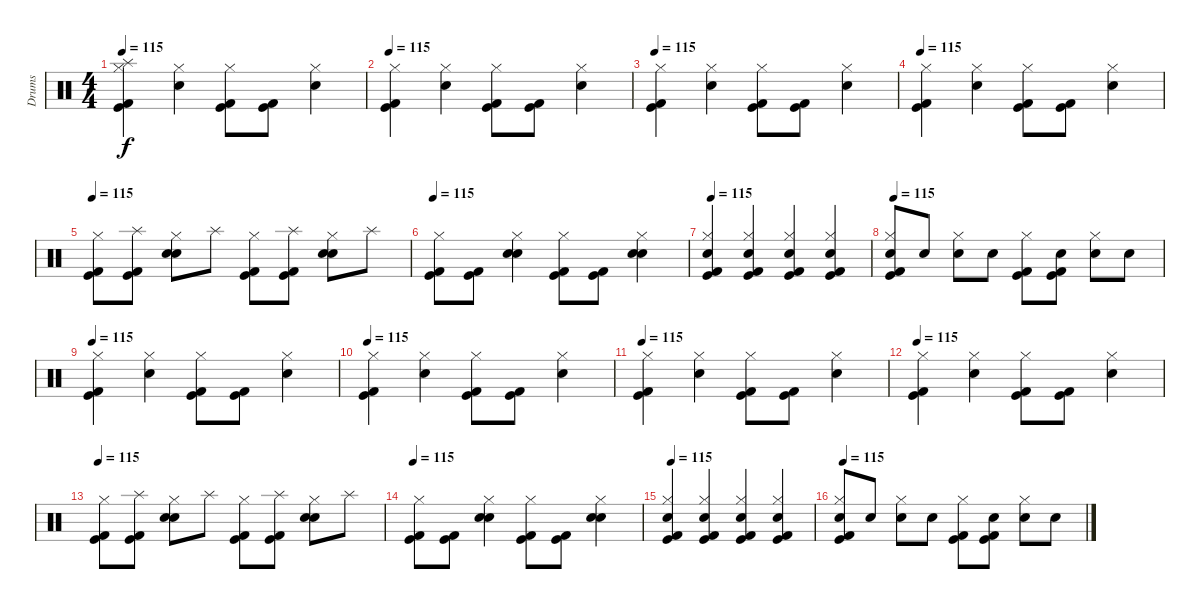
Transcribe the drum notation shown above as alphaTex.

\track ("Drums" "Drums") {instrument percussion}
\staff {score}
\articulation defaults
\ts (4 4)
\tempo 115
\clef neutral
\ks c
("Splash (hit)" "Kick (hit) 2" "Kick (hit)" "Hi-Hat (closed)").4{dy f} ("Hi-Hat (closed)" "Electric Snare (hit)").4 ("Kick (hit) 2" "Kick (hit)" "Hi-Hat (closed)").8 ("Kick (hit) 2" "Kick (hit)").8 ("Electric Snare (hit)" "Hi-Hat (closed)").4 |
\tempo 115
("Kick (hit) 2" "Kick (hit)" "Hi-Hat (closed)").4 ("Hi-Hat (closed)" "Electric Snare (hit)").4 ("Kick (hit) 2" "Kick (hit)" "Hi-Hat (closed)").8 ("Kick (hit) 2" "Kick (hit)").8 ("Electric Snare (hit)" "Hi-Hat (closed)").4 |
\tempo 115
("Kick (hit) 2" "Kick (hit)" "Hi-Hat (closed)").4 ("Hi-Hat (closed)" "Electric Snare (hit)").4 ("Kick (hit) 2" "Kick (hit)" "Hi-Hat (closed)").8 ("Kick (hit) 2" "Kick (hit)").8 ("Electric Snare (hit)" "Hi-Hat (closed)").4 |
\tempo 115
("Kick (hit) 2" "Kick (hit)" "Hi-Hat (closed)").4 ("Hi-Hat (closed)" "Electric Snare (hit)").4 ("Kick (hit) 2" "Kick (hit)" "Hi-Hat (closed)").8 ("Kick (hit) 2" "Kick (hit)").8 ("Electric Snare (hit)" "Hi-Hat (closed)").4 |
\tempo 115
("Kick (hit) 2" "Kick (hit)" "Hi-Hat (closed)").8 ("Splash (hit)" "Kick (hit) 2" "Kick (hit)").8 ("Snare (hit) 2" "Hi-Hat (closed)" "Electric Snare (hit)").8 "Splash (hit)".8 ("Kick (hit) 2" "Kick (hit)" "Hi-Hat (closed)").8 ("Splash (hit)" "Kick (hit) 2" "Kick (hit)").8 ("Snare (hit) 2" "Electric Snare (hit)" "Hi-Hat (closed)").8 "Splash (hit)".8 |
\tempo 115
("Kick (hit) 2" "Kick (hit)" "Hi-Hat (closed)").8 ("Kick (hit) 2" "Kick (hit)").8 ("Snare (hit) 2" "Hi-Hat (closed)" "Electric Snare (hit)").4 ("Kick (hit) 2" "Kick (hit)" "Hi-Hat (closed)").8 ("Kick (hit) 2" "Kick (hit)").8 ("Snare (hit) 2" "Electric Snare (hit)" "Hi-Hat (closed)").4 |
\tempo 115
("Electric Snare (hit)" "Kick (hit) 2" "Kick (hit)" "Hi-Hat (closed)").4 ("Kick (hit) 2" "Kick (hit)" "Hi-Hat (closed)" "Electric Snare (hit)").4 ("Electric Snare (hit)" "Kick (hit) 2" "Kick (hit)" "Hi-Hat (closed)").4 ("Kick (hit) 2" "Kick (hit)" "Electric Snare (hit)" "Hi-Hat (closed)").4 |
\tempo 115
("Electric Snare (hit)" "Kick (hit) 2" "Kick (hit)" "Hi-Hat (closed)").8 "Snare (hit) 2".8 ("Hi-Hat (closed)" "Electric Snare (hit)").8 "Electric Snare (hit)".8 ("Kick (hit) 2" "Kick (hit)" "Hi-Hat (closed)").8 ("Electric Snare (hit)" "Kick (hit) 2" "Kick (hit)").8 ("Electric Snare (hit)" "Hi-Hat (closed)").8 "Snare (hit) 2".8 |
\tempo 115
("Kick (hit) 2" "Kick (hit)" "Hi-Hat (closed)").4 ("Hi-Hat (closed)" "Electric Snare (hit)").4 ("Kick (hit) 2" "Kick (hit)" "Hi-Hat (closed)").8 ("Kick (hit) 2" "Kick (hit)").8 ("Electric Snare (hit)" "Hi-Hat (closed)").4 |
\tempo 115
("Kick (hit) 2" "Kick (hit)" "Hi-Hat (closed)").4 ("Hi-Hat (closed)" "Electric Snare (hit)").4 ("Kick (hit) 2" "Kick (hit)" "Hi-Hat (closed)").8 ("Kick (hit) 2" "Kick (hit)").8 ("Electric Snare (hit)" "Hi-Hat (closed)").4 |
\tempo 115
("Kick (hit) 2" "Kick (hit)" "Hi-Hat (closed)").4 ("Hi-Hat (closed)" "Electric Snare (hit)").4 ("Kick (hit) 2" "Kick (hit)" "Hi-Hat (closed)").8 ("Kick (hit) 2" "Kick (hit)").8 ("Electric Snare (hit)" "Hi-Hat (closed)").4 |
\tempo 115
("Kick (hit) 2" "Kick (hit)" "Hi-Hat (closed)").4 ("Hi-Hat (closed)" "Electric Snare (hit)").4 ("Kick (hit) 2" "Kick (hit)" "Hi-Hat (closed)").8 ("Kick (hit) 2" "Kick (hit)").8 ("Electric Snare (hit)" "Hi-Hat (closed)").4 |
\tempo 115
("Kick (hit) 2" "Kick (hit)" "Hi-Hat (closed)").8 ("Splash (hit)" "Kick (hit) 2" "Kick (hit)").8 ("Snare (hit) 2" "Hi-Hat (closed)" "Electric Snare (hit)").8 "Splash (hit)".8 ("Kick (hit) 2" "Kick (hit)" "Hi-Hat (closed)").8 ("Splash (hit)" "Kick (hit) 2" "Kick (hit)").8 ("Snare (hit) 2" "Electric Snare (hit)" "Hi-Hat (closed)").8 "Splash (hit)".8 |
\tempo 115
("Kick (hit) 2" "Kick (hit)" "Hi-Hat (closed)").8 ("Kick (hit) 2" "Kick (hit)").8 ("Snare (hit) 2" "Hi-Hat (closed)" "Electric Snare (hit)").4 ("Kick (hit) 2" "Kick (hit)" "Hi-Hat (closed)").8 ("Kick (hit) 2" "Kick (hit)").8 ("Snare (hit) 2" "Electric Snare (hit)" "Hi-Hat (closed)").4 |
\tempo 115
("Electric Snare (hit)" "Kick (hit) 2" "Kick (hit)" "Hi-Hat (closed)").4 ("Kick (hit) 2" "Kick (hit)" "Hi-Hat (closed)" "Electric Snare (hit)").4 ("Electric Snare (hit)" "Kick (hit) 2" "Kick (hit)" "Hi-Hat (closed)").4 ("Kick (hit) 2" "Kick (hit)" "Electric Snare (hit)" "Hi-Hat (closed)").4 |
\tempo 115
("Electric Snare (hit)" "Kick (hit) 2" "Kick (hit)" "Hi-Hat (closed)").8 "Snare (hit) 2".8 ("Hi-Hat (closed)" "Electric Snare (hit)").8 "Electric Snare (hit)".8 ("Kick (hit) 2" "Kick (hit)" "Hi-Hat (closed)").8 ("Electric Snare (hit)" "Kick (hit) 2" "Kick (hit)").8 ("Electric Snare (hit)" "Hi-Hat (closed)").8 "Snare (hit) 2".8
